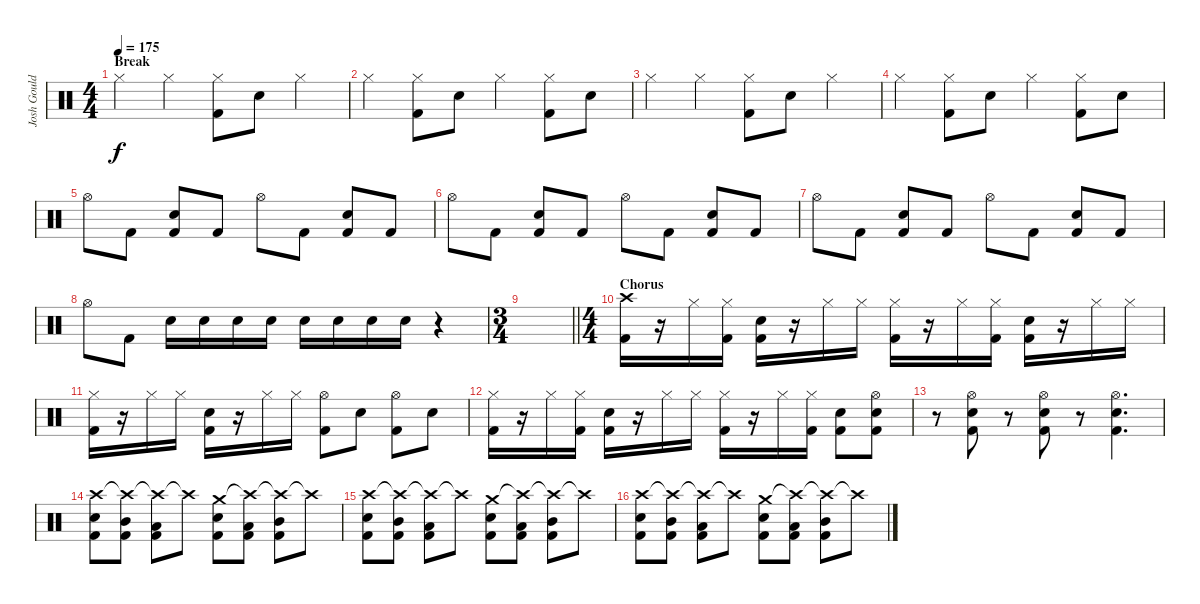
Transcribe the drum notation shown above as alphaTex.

\track ("Josh Gould - Drums" "Josh Gould") {instrument percussion}
\staff {score}
\articulation defaults
\ts (4 4)
\section ("" "Break")
\tempo 175
\clef neutral
\ks c "Hi-Hat (closed)".4{dy f volume 13} "Hi-Hat (closed)".4
("Hi-Hat (closed)" "Kick (hit) 2").8 "Snare (hit) 2".8 "Hi-Hat (closed)".4 |
"Hi-Hat (closed)".4 ("Hi-Hat (closed)" "Kick (hit) 2").8 "Snare (hit) 2".8 "Hi-Hat (closed)".4 ("Hi-Hat (closed)" "Kick (hit) 2").8 "Snare (hit) 2".8 |
"Hi-Hat (closed)".4 "Hi-Hat (closed)".4 ("Hi-Hat (closed)" "Kick (hit) 2").8 "Snare (hit) 2".8 "Hi-Hat (closed)".4 |
"Hi-Hat (closed)".4 ("Hi-Hat (closed)" "Kick (hit) 2").8 "Snare (hit) 2".8 "Hi-Hat (closed)".4 ("Hi-Hat (closed)" "Kick (hit) 2").8 "Snare (hit) 2".8 |
"Hi-Hat (open)".8 "Kick (hit) 2".8 ("Snare (hit) 2" "Kick (hit) 2").8 "Kick (hit) 2".8 "Hi-Hat (open)".8 "Kick (hit) 2".8 ("Snare (hit) 2" "Kick (hit) 2").8 "Kick (hit) 2".8 |
"Hi-Hat (open)".8 "Kick (hit) 2".8 ("Snare (hit) 2" "Kick (hit) 2").8 "Kick (hit) 2".8 "Hi-Hat (open)".8 "Kick (hit) 2".8 ("Snare (hit) 2" "Kick (hit) 2").8 "Kick (hit) 2".8 |
"Hi-Hat (open)".8 "Kick (hit) 2".8 ("Snare (hit) 2" "Kick (hit) 2").8 "Kick (hit) 2".8 "Hi-Hat (open)".8 "Kick (hit) 2".8 ("Snare (hit) 2" "Kick (hit) 2").8 "Kick (hit) 2".8 |
"Hi-Hat (open)".8 "Kick (hit) 2".8 "Snare (hit) 2".16 "Snare (hit) 2".16 "Snare (hit) 2".16 "Snare (hit) 2".16 "Snare (hit) 2".16 "Snare (hit) 2".16 "Snare (hit) 2".16 "Snare (hit) 2".16 r.4 |
\ts (3 4)
\barLineRight lightlight
|
\ts (4 4)
\section ("" "Chorus")
("Crash high (hit)" "Kick (hit) 2").16{volume 13} r.16 "Hi-Hat (closed)".16 ("Hi-Hat (closed)" "Kick (hit) 2").16 ("Snare (hit) 2" "Kick (hit) 2").16 r.16 "Hi-Hat (closed)".16 "Hi-Hat (closed)".16 ("Hi-Hat (closed)" "Kick (hit) 2").16 r.16 "Hi-Hat (closed)".16 ("Hi-Hat (closed)" "Kick (hit) 2").16 ("Snare (hit) 2" "Kick (hit) 2").16 r.16 "Hi-Hat (closed)".16 "Hi-Hat (closed)".16 |
("Hi-Hat (closed)" "Kick (hit) 2").16 r.16 "Hi-Hat (closed)".16 "Hi-Hat (closed)".16 ("Snare (hit) 2" "Kick (hit) 2").16 r.16 "Hi-Hat (closed)".16 "Hi-Hat (closed)".16 ("Hi-Hat (open)" "Kick (hit) 2").8 "Snare (hit) 2".8 ("Hi-Hat (open)" "Kick (hit) 2").8 "Snare (hit) 2".8 |
("Hi-Hat (closed)" "Kick (hit) 2").16 r.16 "Hi-Hat (closed)".16 ("Hi-Hat (closed)" "Kick (hit) 2").16 ("Snare (hit) 2" "Kick (hit) 2").16 r.16 "Hi-Hat (closed)".16 "Hi-Hat (closed)".16 ("Hi-Hat (closed)" "Kick (hit) 2").16 r.16 "Hi-Hat (closed)".16 ("Hi-Hat (closed)" "Kick (hit) 2").16 ("Snare (hit) 2" "Kick (hit) 2").8 ("Hi-Hat (open)" "Snare (hit) 2" "Kick (hit) 2").8 |
r.8 ("Hi-Hat (open)" "Snare (hit) 2" "Kick (hit) 2").8 r.8 ("Hi-Hat (open)" "Snare (hit) 2" "Kick (hit) 2").8 r.8 ("Hi-Hat (open)" "Snare (hit) 2" "Kick (hit) 2").4{d} |
("Crash high (hit)" "Snare (hit) 2" "Kick (hit) 2").8 ("Crash high (hit)"{t} "Mid Tom (hit)" "Kick (hit) 2").8 ("Crash high (hit)"{t} "Low Tom (hit)" "Kick (hit) 2").8 "Crash high (hit)"{t}.8 ("Crash medium (hit)" "Snare (hit) 2" "Kick (hit) 2").8 ("Crash high (hit)"{t} "Low Tom (hit)" "Kick (hit) 2").8 ("Crash high (hit)"{t} "Mid Tom (hit)" "Kick (hit) 2").8 "Crash high (hit)"{t}.8 |
("Crash high (hit)" "Snare (hit) 2" "Kick (hit) 2").8 ("Crash high (hit)"{t} "Mid Tom (hit)" "Kick (hit) 2").8 ("Crash high (hit)"{t} "Low Tom (hit)" "Kick (hit) 2").8 "Crash high (hit)"{t}.8 ("Crash medium (hit)" "Snare (hit) 2" "Kick (hit) 2").8 ("Crash high (hit)"{t} "Low Tom (hit)" "Kick (hit) 2").8 ("Crash high (hit)"{t} "Mid Tom (hit)" "Kick (hit) 2").8 "Crash high (hit)"{t}.8 |
("Crash high (hit)" "Snare (hit) 2" "Kick (hit) 2").8 ("Crash high (hit)"{t} "Mid Tom (hit)" "Kick (hit) 2").8 ("Crash high (hit)"{t} "Low Tom (hit)" "Kick (hit) 2").8 "Crash high (hit)"{t}.8 ("Crash medium (hit)" "Snare (hit) 2" "Kick (hit) 2").8 ("Crash high (hit)"{t} "Low Tom (hit)" "Kick (hit) 2").8 ("Crash high (hit)"{t} "Mid Tom (hit)" "Kick (hit) 2").8 "Crash high (hit)"{t}.8
